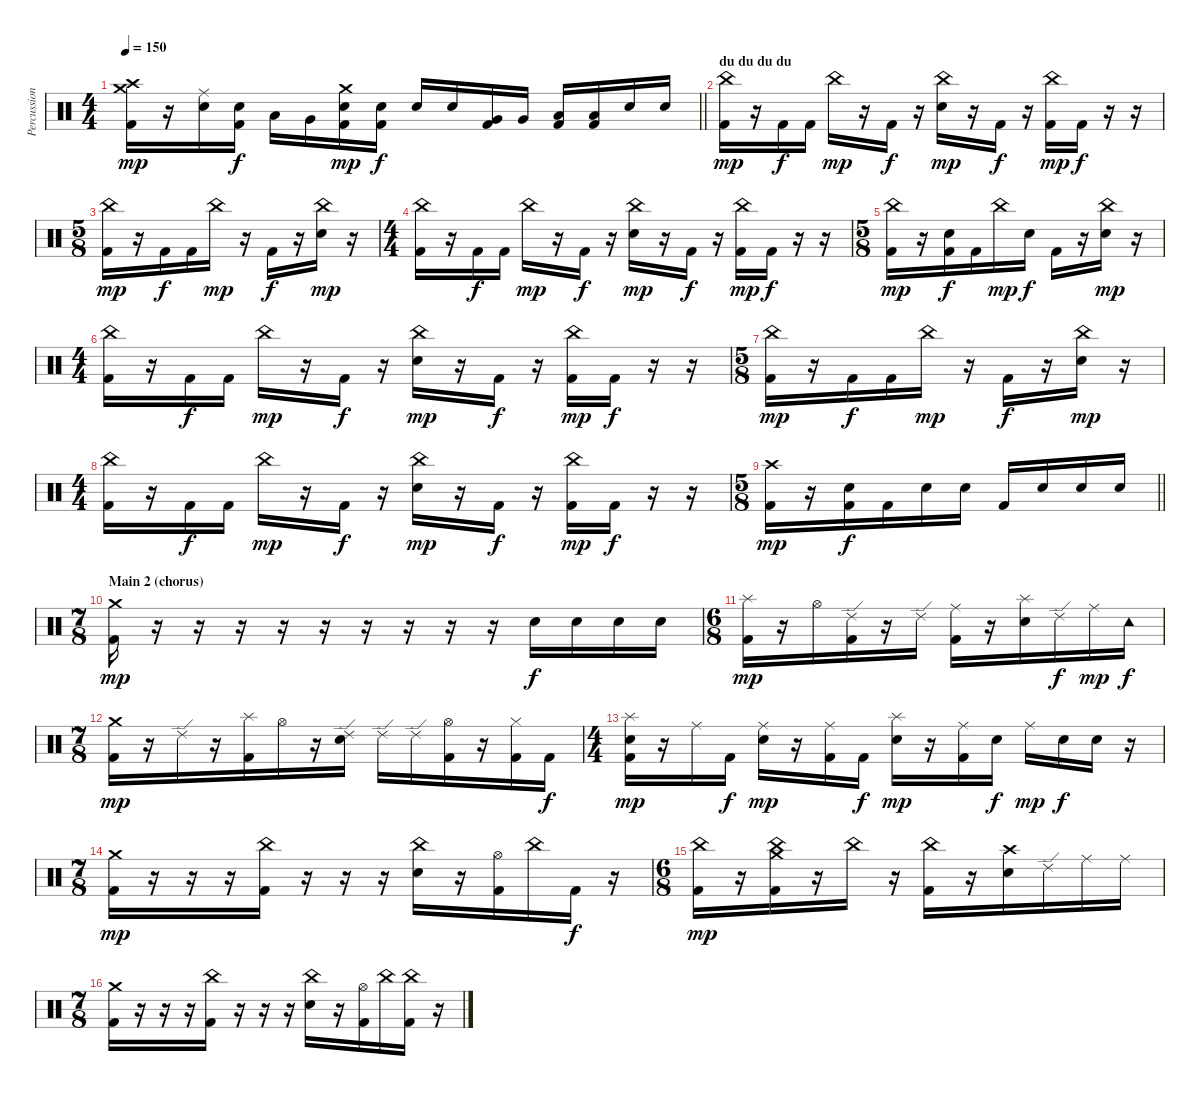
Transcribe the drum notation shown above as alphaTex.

\track ("Percussion" "Percussion") {instrument percussion}
\staff {score}
\articulation defaults
\ts (4 4)
\tempo 150
\clef neutral
\barLineRight lightlight
\ks c
("Crash high (hit)" "Crash medium (hit)" "Kick (hit) 2").16{dy mp} r.16 ("Ride (middle)" "Electric Snare (hit)").16 ("Electric Snare (hit)" "Kick (hit) 2").16{dy f} "Low Tom (hit)".16 "Very Low Tom (hit)".16 ("Crash medium (hit)" "Electric Snare (hit)" "Kick (hit) 2").16{dy mp} ("Electric Snare (hit)" "Kick (hit) 2").16{dy f} "Electric Snare (hit)".16 "Electric Snare (hit)".16 ("Very Low Tom (hit)" "Kick (hit) 2").16 "Very Low Tom (hit)".16 ("Low Floor Tom (hit)" "Kick (hit) 2").16 ("Low Floor Tom (hit)" "Kick (hit) 2").16 "Electric Snare (hit)".16 "Electric Snare (hit)".16 |
\section ("" "du du du du")
("China (hit)" "Kick (hit) 2").16{dy mp} r.16 "Kick (hit) 2".16{dy f} "Kick (hit) 2".16 "China (hit)".16{dy mp} r.16 "Kick (hit) 2".16{dy f} r.16 ("China (hit)" "Electric Snare (hit)").16{dy mp} r.16 "Kick (hit) 2".16{dy f} r.16 ("China (hit)" "Kick (hit) 2").16{dy mp} "Kick (hit) 2".16{dy f} r.16 r.16 |
\ts (5 8)
("China (hit)" "Kick (hit) 2").16{dy mp} r.16 "Kick (hit) 2".16{dy f} "Kick (hit) 2".16 "China (hit)".16{dy mp} r.16 "Kick (hit) 2".16{dy f} r.16 ("China (hit)" "Electric Snare (hit)").16{dy mp} r.16 |
\ts (4 4)
("China (hit)" "Kick (hit) 2").16 r.16 "Kick (hit) 2".16{dy f} "Kick (hit) 2".16 "China (hit)".16{dy mp} r.16 "Kick (hit) 2".16{dy f} r.16 ("China (hit)" "Electric Snare (hit)").16{dy mp} r.16 "Kick (hit) 2".16{dy f} r.16 ("China (hit)" "Kick (hit) 2").16{dy mp} "Kick (hit) 2".16{dy f} r.16 r.16 |
\ts (5 8)
("China (hit)" "Kick (hit) 2").16{dy mp} r.16 ("Electric Snare (hit)" "Kick (hit) 2").16{dy f} "Kick (hit) 2".16 "China (hit)".16{dy mp} "Electric Snare (hit)".16{dy f} "Kick (hit) 2".16 r.16 ("China (hit)" "Electric Snare (hit)").16{dy mp} r.16 |
\ts (4 4)
("China (hit)" "Kick (hit) 2").16 r.16 "Kick (hit) 2".16{dy f} "Kick (hit) 2".16 "China (hit)".16{dy mp} r.16 "Kick (hit) 2".16{dy f} r.16 ("China (hit)" "Electric Snare (hit)").16{dy mp} r.16 "Kick (hit) 2".16{dy f} r.16 ("China (hit)" "Kick (hit) 2").16{dy mp} "Kick (hit) 2".16{dy f} r.16 r.16 |
\ts (5 8)
("China (hit)" "Kick (hit) 2").16{dy mp} r.16 "Kick (hit) 2".16{dy f} "Kick (hit) 2".16 "China (hit)".16{dy mp} r.16 "Kick (hit) 2".16{dy f} r.16 ("China (hit)" "Electric Snare (hit)").16{dy mp} r.16 |
\ts (4 4)
("China (hit)" "Kick (hit) 2").16 r.16 "Kick (hit) 2".16{dy f} "Kick (hit) 2".16 "China (hit)".16{dy mp} r.16 "Kick (hit) 2".16{dy f} r.16 ("China (hit)" "Electric Snare (hit)").16{dy mp} r.16 "Kick (hit) 2".16{dy f} r.16 ("China (hit)" "Kick (hit) 2").16{dy mp} "Kick (hit) 2".16{dy f} r.16 r.16 |
\ts (5 8)
\barLineRight lightlight
("Crash high (hit)" "Kick (hit) 2").16{dy mp} r.16 ("Electric Snare (hit)" "Kick (hit) 2").16{dy f} "Kick (hit) 2".16 "Electric Snare (hit)".16 "Electric Snare (hit)".16 "Kick (hit) 2".16 "Electric Snare (hit)".16 "Electric Snare (hit)".16 "Electric Snare (hit)".16 |
\ts (7 8)
\section ("" "Main 2 (chorus)")
("Crash medium (hit)" "Kick (hit) 2").16{dy mp} r.16 r.16 r.16 r.16 r.16 r.16 r.16 r.16 r.16 "Electric Snare (hit)".16{dy f} "Electric Snare (hit)".16 "Electric Snare (hit)".16 "Electric Snare (hit)".16 |
\ts (6 8)
("Splash (hit)" "Kick (hit) 2").16{dy mp} r.16 "Hi-Hat (open)".16 ("Ride (edge) 2" "Kick (hit) 2").16 r.16 "Ride (edge) 2".16 ("Ride (middle)" "Kick (hit) 2").16 r.16 ("Splash (hit)" "Electric Snare (hit)").16 "Ride (edge) 2".16{dy f} "Ride (middle)".16{dy mp} "Tambourine (hit)".16{dy f} |
\ts (7 8)
("Crash medium (hit)" "Kick (hit) 2").16{dy mp} r.16 "Ride (edge) 2".16 r.16 ("Splash (hit)" "Kick (hit) 2").16 "Hi-Hat (open)".16 r.16 ("Ride (edge) 2" "Electric Snare (hit)").16 "Ride (edge) 2".16 "Ride (edge) 2".16 ("Hi-Hat (open)" "Kick (hit) 2").16 r.16 ("Hi-Hat (closed)" "Kick (hit) 2").16 "Kick (hit) 2".16{dy f} |
\ts (4 4)
("Splash (hit)" "Electric Snare (hit)" "Kick (hit) 2").16{dy mp} r.16 "Ride (middle)".16 "Kick (hit) 2".16{dy f} ("Ride (middle)" "Electric Snare (hit)").16{dy mp} r.16 ("Ride (middle)" "Kick (hit) 2").16 "Kick (hit) 2".16{dy f} ("Splash (hit)" "Electric Snare (hit)").16{dy mp} r.16 ("Ride (middle)" "Kick (hit) 2").16 "Electric Snare (hit)".16{dy f} "Ride (middle)".16{dy mp} "Electric Snare (hit)".16{dy f} "Electric Snare (hit)".16 r.16 |
\ts (7 8)
("Crash medium (hit)" "Kick (hit) 2").16{dy mp} r.16 r.16 r.16 ("China (hit)" "Kick (hit) 2").16 r.16 r.16 r.16 ("China (hit)" "Electric Snare (hit)").16 r.16 ("Hi-Hat (open)" "Kick (hit) 2").16 "China (hit)".16 "Kick (hit) 2".16{dy f} r.16 |
\ts (6 8)
("China (hit)" "Kick (hit) 2").16{dy mp} r.16 ("China (hit)" "Crash medium (hit)" "Kick (hit) 2").16 r.16 "China (hit)".16 r.16 ("China (hit)" "Kick (hit) 2").16 r.16 ("Crash high (hit)" "Electric Snare (hit)").16 "Ride (edge) 2".16 "Ride (middle)".16 "Ride (middle)".16 |
\ts (7 8)
("Crash medium (hit)" "Kick (hit) 2").16 r.16 r.16 r.16 ("China (hit)" "Kick (hit) 2").16 r.16 r.16 r.16 ("China (hit)" "Electric Snare (hit)").16 r.16 ("Hi-Hat (open)" "Kick (hit) 2").16 "China (hit)".16 ("China (hit)" "Kick (hit) 2").16 r.16
